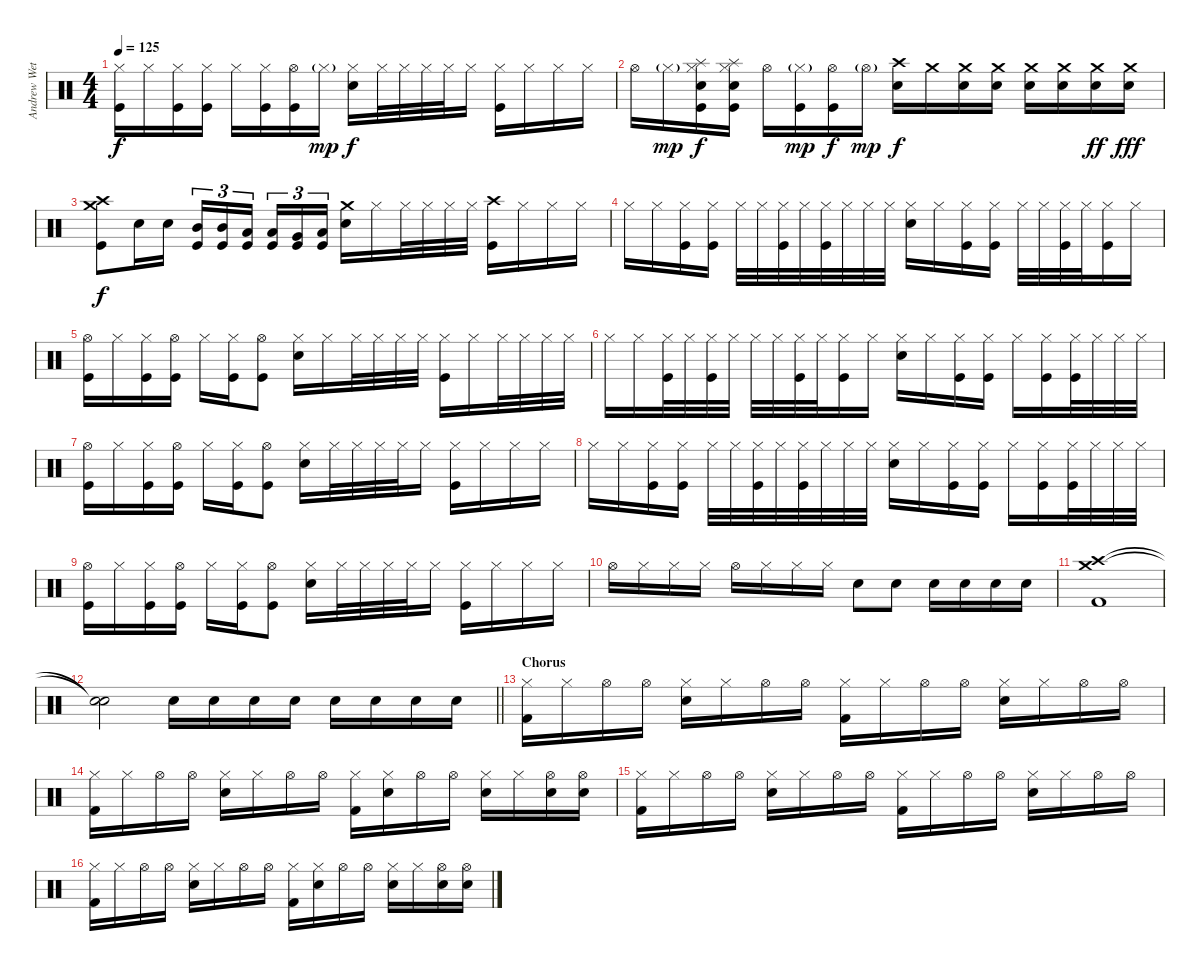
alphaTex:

\track ("Andrew Wetzel" "Andrew Wet") {instrument percussion}
\staff {score}
\articulation defaults
\ts (4 4)
\tempo 125
\clef neutral
\ks c
("Hi-Hat (closed)" "Kick (hit)").16{dy f} "Hi-Hat (closed)".16 ("Hi-Hat (closed)" "Kick (hit)").16 ("Hi-Hat (closed)" "Kick (hit)").16 "Hi-Hat (closed)".16 ("Hi-Hat (closed)" "Kick (hit)").16 ("Hi-Hat (open)" "Kick (hit)").16 "Hi-Hat (closed)"{g}.16{dy mp} ("Hi-Hat (closed)" "Snare (hit) 2").16{dy f} "Hi-Hat (closed)".32 "Hi-Hat (closed)".32 "Hi-Hat (closed)".32 "Hi-Hat (closed)".32 "Hi-Hat (closed)".16 ("Hi-Hat (closed)" "Kick (hit)").16 "Hi-Hat (closed)".16 "Hi-Hat (closed)".16 "Hi-Hat (closed)".16 |
"Hi-Hat (open)".16 "Hi-Hat (closed)"{g}.16{dy mp} ("Splash (hit)" "Hi-Hat (closed)" "Snare (hit) 2" "Kick (hit)").16{dy f} ("Splash (hit)" "Hi-Hat (closed)" "Snare (hit) 2" "Kick (hit)").16 "Hi-Hat (open)".16 ("Hi-Hat (closed)"{g} "Kick (hit)").16{dy mp} ("Hi-Hat (open)" "Kick (hit)").16{dy f} "Hi-Hat (open)"{g}.16{dy mp volume 7} ("Crash high (hit)" "Snare (hit) 2").16{dy f volume 13} "Crash medium (hit)".16 ("Crash medium (hit)" "Snare (hit) 2").16 ("Crash medium (hit)" "Snare (hit) 2").16 ("Crash medium (hit)" "Snare (hit) 2").16 ("Crash medium (hit)" "Snare (hit) 2").16 ("Crash medium (hit)" "Snare (hit) 2").16{dy ff} ("Crash medium (hit)" "Snare (hit) 2").16{dy fff} |
("Crash medium (hit)" "Crash high (hit)" "Kick (hit)").8{dy f} "Snare (hit) 2".16 "Snare (hit) 2".16 ("Mid Tom (hit)" "Kick (hit)").16{tu (3 2)} ("Mid Tom (hit)" "Kick (hit)").16{tu (3 2)} ("Low Tom (hit)" "Kick (hit)").16{tu (3 2) beam splitsecondary} ("Low Tom (hit)" "Kick (hit)").16{tu (3 2)} ("Very Low Tom (hit)" "Kick (hit)").16{tu (3 2)} ("Low Floor Tom (hit)" "Kick (hit)").16{tu (3 2)} ("Crash medium (hit)" "Snare (hit) 2").16 "Hi-Hat (closed)".16 "Hi-Hat (closed)".32 "Hi-Hat (closed)".32 "Hi-Hat (closed)".32 "Hi-Hat (closed)".32 ("Crash high (hit)" "Kick (hit)").16 "Hi-Hat (closed)".16 "Hi-Hat (closed)".16 "Hi-Hat (closed)".16 |
"Hi-Hat (closed)".16 "Hi-Hat (closed)".16 ("Hi-Hat (closed)" "Kick (hit)").16 ("Hi-Hat (closed)" "Kick (hit)").16 "Hi-Hat (closed)".32 "Hi-Hat (closed)".32 ("Hi-Hat (closed)" "Kick (hit)").32 "Hi-Hat (closed)".32 ("Hi-Hat (closed)" "Kick (hit)").32 "Hi-Hat (closed)".32 "Hi-Hat (closed)".32 "Hi-Hat (closed)".32 ("Hi-Hat (closed)" "Snare (hit) 2").16 "Hi-Hat (closed)".16 ("Hi-Hat (closed)" "Kick (hit)").16 ("Hi-Hat (closed)" "Kick (hit)").16 "Hi-Hat (closed)".32 "Hi-Hat (closed)".32 ("Hi-Hat (closed)" "Kick (hit)").32 "Hi-Hat (closed)".32 ("Hi-Hat (closed)" "Kick (hit)").16 "Hi-Hat (closed)".16 |
("Hi-Hat (open)" "Kick (hit)").16 "Hi-Hat (closed)".16 ("Hi-Hat (closed)" "Kick (hit)").16 ("Hi-Hat (open)" "Kick (hit)").16 "Hi-Hat (closed)".16 ("Hi-Hat (closed)" "Kick (hit)").16 ("Hi-Hat (open)" "Kick (hit)").8 ("Hi-Hat (closed)" "Snare (hit) 2").16 "Hi-Hat (closed)".16 "Hi-Hat (closed)".32 "Hi-Hat (closed)".32 "Hi-Hat (closed)".32 "Hi-Hat (closed)".32 ("Hi-Hat (closed)" "Kick (hit)").16 "Hi-Hat (closed)".16 "Hi-Hat (closed)".32 "Hi-Hat (closed)".32 "Hi-Hat (closed)".32 "Hi-Hat (closed)".32 |
"Hi-Hat (closed)".16 "Hi-Hat (closed)".16 ("Hi-Hat (closed)" "Kick (hit)").32 "Hi-Hat (closed)".32 ("Hi-Hat (closed)" "Kick (hit)").32 "Hi-Hat (closed)".32 "Hi-Hat (closed)".32 "Hi-Hat (closed)".32 ("Hi-Hat (closed)" "Kick (hit)").32 "Hi-Hat (closed)".32 ("Hi-Hat (closed)" "Kick (hit)").16 "Hi-Hat (closed)".16 ("Hi-Hat (closed)" "Snare (hit) 2").16 "Hi-Hat (closed)".16 ("Hi-Hat (closed)" "Kick (hit)").16 ("Hi-Hat (closed)" "Kick (hit)").16 "Hi-Hat (closed)".16 ("Hi-Hat (closed)" "Kick (hit)").16 ("Hi-Hat (closed)" "Kick (hit)").32 "Hi-Hat (closed)".32 "Hi-Hat (closed)".32 "Hi-Hat (closed)".32 |
("Hi-Hat (open)" "Kick (hit)").16 "Hi-Hat (closed)".16 ("Hi-Hat (closed)" "Kick (hit)").16 ("Hi-Hat (open)" "Kick (hit)").16 "Hi-Hat (closed)".16 ("Hi-Hat (closed)" "Kick (hit)").16 ("Hi-Hat (open)" "Kick (hit)").8 ("Hi-Hat (closed)" "Snare (hit) 2").16 "Hi-Hat (closed)".32 "Hi-Hat (closed)".32 "Hi-Hat (closed)".32 "Hi-Hat (closed)".32 "Hi-Hat (closed)".16 ("Hi-Hat (closed)" "Kick (hit)").16 "Hi-Hat (closed)".16 "Hi-Hat (closed)".16 "Hi-Hat (closed)".16 |
"Hi-Hat (closed)".16 "Hi-Hat (closed)".16 ("Hi-Hat (closed)" "Kick (hit)").16 ("Hi-Hat (closed)" "Kick (hit)").16 "Hi-Hat (closed)".32 "Hi-Hat (closed)".32 ("Hi-Hat (closed)" "Kick (hit)").32 "Hi-Hat (closed)".32 ("Hi-Hat (closed)" "Kick (hit)").32 "Hi-Hat (closed)".32 "Hi-Hat (closed)".32 "Hi-Hat (closed)".32 ("Hi-Hat (closed)" "Snare (hit) 2").16 "Hi-Hat (closed)".16 ("Hi-Hat (closed)" "Kick (hit)").16 ("Hi-Hat (closed)" "Kick (hit)").16 "Hi-Hat (closed)".16 ("Hi-Hat (closed)" "Kick (hit)").16 ("Hi-Hat (closed)" "Kick (hit)").32 "Hi-Hat (closed)".32 "Hi-Hat (closed)".32 "Hi-Hat (closed)".32 |
("Hi-Hat (open)" "Kick (hit)").16 "Hi-Hat (closed)".16 ("Hi-Hat (closed)" "Kick (hit)").16 ("Hi-Hat (open)" "Kick (hit)").16 "Hi-Hat (closed)".16 ("Hi-Hat (closed)" "Kick (hit)").16 ("Hi-Hat (open)" "Kick (hit)").8 ("Hi-Hat (closed)" "Snare (hit) 2").16 "Hi-Hat (closed)".32 "Hi-Hat (closed)".32 "Hi-Hat (closed)".32 "Hi-Hat (closed)".32 "Hi-Hat (closed)".16 ("Hi-Hat (closed)" "Kick (hit)").16 "Hi-Hat (closed)".16 "Hi-Hat (closed)".16 "Hi-Hat (closed)".16 |
"Hi-Hat (open)".16 "Hi-Hat (closed)".16 "Hi-Hat (closed)".16 "Hi-Hat (closed)".16 "Hi-Hat (open)".16 "Hi-Hat (closed)".16 "Hi-Hat (closed)".16 "Hi-Hat (closed)".16 "Snare (hit) 2".8 "Snare (hit) 2".8 "Snare (hit) 2".16 "Snare (hit) 2".16 "Snare (hit) 2".16 "Snare (hit) 2".16 |
("Crash medium (hit)" "Crash high (hit)" "Kick (hit) 2").1 |
\barLineRight lightlight
("Snare (hit)"{t} "Snare (hit)"{t}).2 "Snare (hit) 2".16 "Snare (hit) 2".16 "Snare (hit) 2".16 "Snare (hit) 2".16 "Snare (hit) 2".16 "Snare (hit) 2".16 "Snare (hit) 2".16 "Snare (hit) 2".16 |
\section ("" "Chorus")
("Hi-Hat (closed)" "Kick (hit) 2").16 "Hi-Hat (closed)".16 "Hi-Hat (open)".16 "Hi-Hat (open)".16 ("Hi-Hat (closed)" "Snare (hit) 2").16 "Hi-Hat (closed)".16 "Hi-Hat (open)".16 "Hi-Hat (open)".16 ("Hi-Hat (closed)" "Kick (hit) 2").16 "Hi-Hat (closed)".16 "Hi-Hat (open)".16 "Hi-Hat (open)".16 ("Hi-Hat (closed)" "Snare (hit) 2").16 "Hi-Hat (closed)".16 "Hi-Hat (open)".16 "Hi-Hat (open)".16 |
("Hi-Hat (closed)" "Kick (hit) 2").16 "Hi-Hat (closed)".16 "Hi-Hat (open)".16 "Hi-Hat (open)".16 ("Hi-Hat (closed)" "Snare (hit) 2").16 "Hi-Hat (closed)".16 "Hi-Hat (open)".16 "Hi-Hat (open)".16 ("Hi-Hat (closed)" "Kick (hit) 2").16 ("Hi-Hat (closed)" "Snare (hit) 2").16 "Hi-Hat (open)".16 "Hi-Hat (open)".16 ("Hi-Hat (closed)" "Snare (hit) 2").16 "Hi-Hat (closed)".16 ("Hi-Hat (open)" "Snare (hit) 2").16 ("Hi-Hat (open)" "Snare (hit) 2").16 |
("Hi-Hat (closed)" "Kick (hit) 2").16 "Hi-Hat (closed)".16 "Hi-Hat (open)".16 "Hi-Hat (open)".16 ("Hi-Hat (closed)" "Snare (hit) 2").16 "Hi-Hat (closed)".16 "Hi-Hat (open)".16 "Hi-Hat (open)".16 ("Hi-Hat (closed)" "Kick (hit) 2").16 "Hi-Hat (closed)".16 "Hi-Hat (open)".16 "Hi-Hat (open)".16 ("Hi-Hat (closed)" "Snare (hit) 2").16 "Hi-Hat (closed)".16 "Hi-Hat (open)".16 "Hi-Hat (open)".16 |
("Hi-Hat (closed)" "Kick (hit) 2").16 "Hi-Hat (closed)".16 "Hi-Hat (open)".16 "Hi-Hat (open)".16 ("Hi-Hat (closed)" "Snare (hit) 2").16 "Hi-Hat (closed)".16 "Hi-Hat (open)".16 "Hi-Hat (open)".16 ("Hi-Hat (closed)" "Kick (hit) 2").16 ("Hi-Hat (closed)" "Snare (hit) 2").16 "Hi-Hat (open)".16 "Hi-Hat (open)".16 ("Hi-Hat (closed)" "Snare (hit) 2").16 "Hi-Hat (closed)".16 ("Hi-Hat (open)" "Snare (hit) 2").16 ("Hi-Hat (open)" "Snare (hit) 2").16
